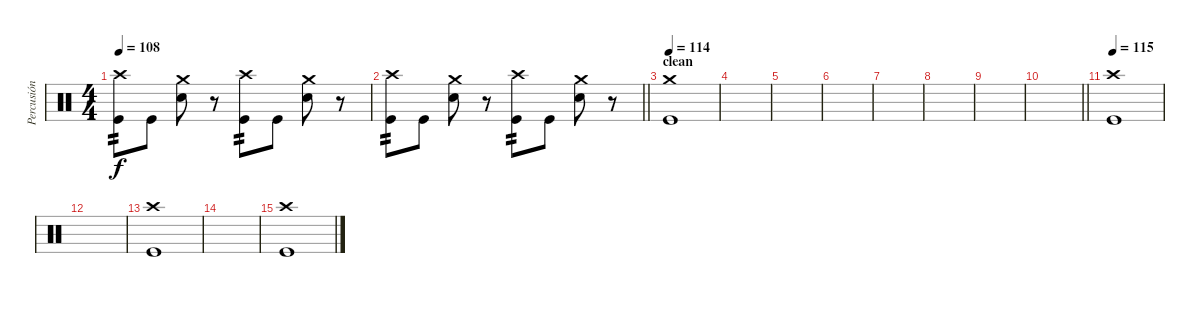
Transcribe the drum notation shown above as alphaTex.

\track ("Percusión" "Percusión") {instrument percussion}
\staff {score}
\articulation defaults
\ts (4 4)
\tempo 108
\clef neutral
\ks aminor
("Crash high (hit)" "Kick (hit)").8{tp 2 dy f} "Kick (hit)".8 ("Electric Snare (hit)" "Crash medium (hit)").8 r.8 ("Crash high (hit)" "Kick (hit)").8{tp 2} "Kick (hit)".8 ("Electric Snare (hit)" "Crash medium (hit)").8 r.8 |
\barLineRight lightlight
("Crash high (hit)" "Kick (hit)").8{tp 2} "Kick (hit)".8 ("Electric Snare (hit)" "Crash medium (hit)").8 r.8 ("Crash high (hit)" "Kick (hit)").8{tp 2} "Kick (hit)".8 ("Electric Snare (hit)" "Crash medium (hit)").8 r.8 |
\section ("" "clean")
\tempo 114
("Crash medium (hit)" "Kick (hit)").1 |
|
|
|
|
|
|
\barLineRight lightlight
|
\tempo 115
("Crash high (hit)" "Kick (hit)").1 |
|
("Crash high (hit)" "Kick (hit)").1 |
|
("Crash high (hit)" "Kick (hit)").1
